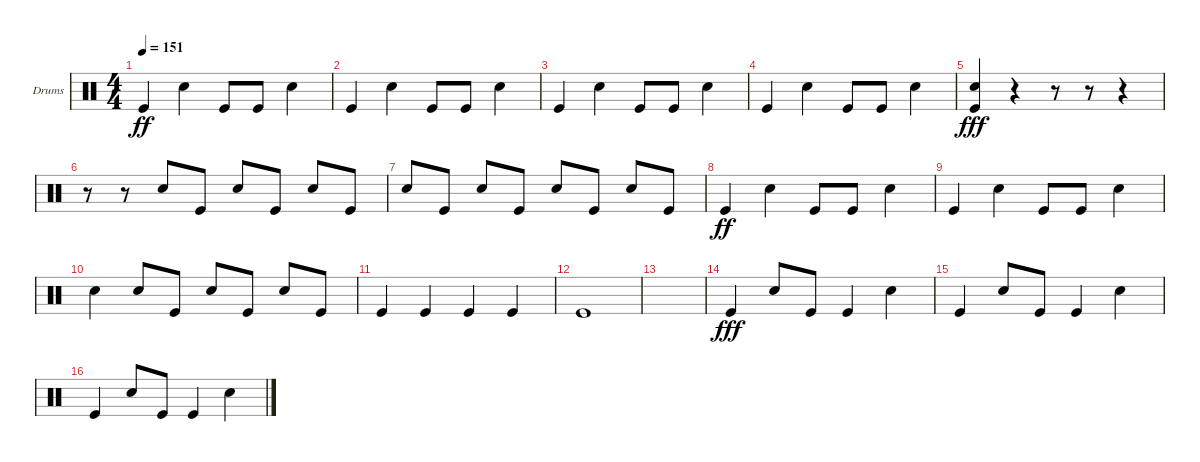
\defaultSystemsLayout 4
\bracketExtendMode groupsimilarinstruments
\firstSystemTrackNameOrientation horizontal
\otherSystemsTrackNameOrientation horizontal
\track ("Helders" "Drums") {instrument percussion}
\staff {score}
\articulation defaults
\ts (4 4)
\tempo 151
\clef neutral
\ks c "Kick (hit)".4{dy ff} "Snare (hit) 2".4 "Kick (hit)".8 "Kick (hit)".8 "Snare (hit) 2".4
|
"Kick (hit)".4 "Snare (hit) 2".4 "Kick (hit)".8 "Kick (hit)".8 "Snare (hit) 2".4 |
"Kick (hit)".4 "Snare (hit) 2".4 "Kick (hit)".8 "Kick (hit)".8 "Snare (hit) 2".4 |
"Kick (hit)".4 "Snare (hit) 2".4 "Kick (hit)".8 "Kick (hit)".8 "Snare (hit) 2".4 |
("Kick (hit)" "Snare (hit) 2").4{dy fff} r.4 r.8 r.8 r.4 |
r.8 r.8 "Snare (hit) 2".8 "Kick (hit)".8 "Snare (hit) 2".8 "Kick (hit)".8 "Snare (hit) 2".8 "Kick (hit)".8 |
"Snare (hit) 2".8 "Kick (hit)".8 "Snare (hit) 2".8 "Kick (hit)".8 "Snare (hit) 2".8 "Kick (hit)".8 "Snare (hit) 2".8 "Kick (hit)".8 |
"Kick (hit)".4{dy ff} "Snare (hit) 2".4 "Kick (hit)".8 "Kick (hit)".8 "Snare (hit) 2".4 |
"Kick (hit)".4 "Snare (hit) 2".4 "Kick (hit)".8 "Kick (hit)".8 "Snare (hit) 2".4 |
"Snare (hit) 2".4 "Snare (hit) 2".8 "Kick (hit)".8 "Snare (hit) 2".8 "Kick (hit)".8 "Snare (hit) 2".8 "Kick (hit)".8 |
"Kick (hit)".4 "Kick (hit)".4 "Kick (hit)".4 "Kick (hit)".4 |
"Kick (hit)".1 |
|
"Kick (hit)".4{dy fff} "Snare (hit) 2".8 "Kick (hit)".8 "Kick (hit)".4 "Snare (hit) 2".4 |
"Kick (hit)".4 "Snare (hit) 2".8 "Kick (hit)".8 "Kick (hit)".4 "Snare (hit) 2".4 |
"Kick (hit)".4 "Snare (hit) 2".8 "Kick (hit)".8 "Kick (hit)".4 "Snare (hit) 2".4
